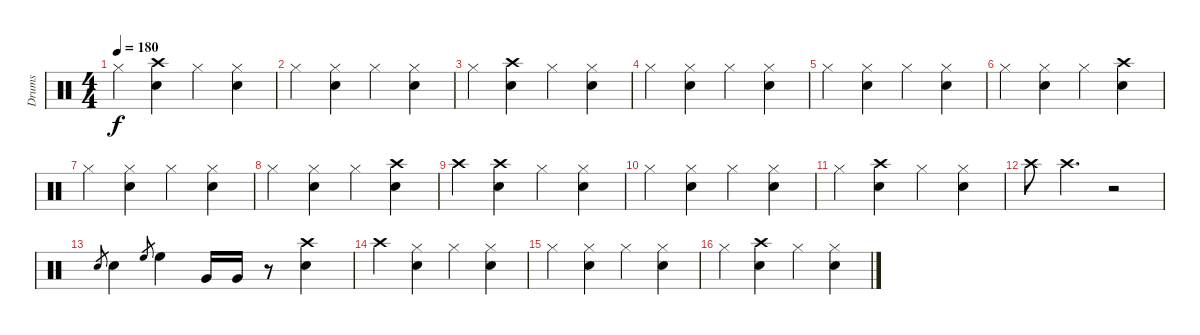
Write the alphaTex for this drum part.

\track ("Drums" "Drums") {instrument percussion}
\staff {score}
\articulation defaults
\ts (4 4)
\tempo 180
\clef neutral
\ks c "Hi-Hat (closed)".4{dy f}
("Crash high (hit)" "Snare (hit) 2").4 "Hi-Hat (closed)".4 ("Hi-Hat (closed)" "Snare (hit) 2").4 |
"Hi-Hat (closed)".4 ("Hi-Hat (closed)" "Snare (hit) 2").4 "Hi-Hat (closed)".4 ("Hi-Hat (closed)" "Snare (hit) 2").4 |
"Hi-Hat (closed)".4 ("Crash high (hit)" "Snare (hit) 2").4 "Hi-Hat (closed)".4 ("Hi-Hat (closed)" "Snare (hit) 2").4 |
"Hi-Hat (closed)".4 ("Hi-Hat (closed)" "Snare (hit) 2").4 "Hi-Hat (closed)".4 ("Hi-Hat (closed)" "Snare (hit) 2").4 |
"Hi-Hat (closed)".4 ("Hi-Hat (closed)" "Snare (hit) 2").4 "Hi-Hat (closed)".4 ("Hi-Hat (closed)" "Snare (hit) 2").4 |
"Hi-Hat (closed)".4 ("Hi-Hat (closed)" "Snare (hit) 2").4 "Hi-Hat (closed)".4 ("Crash high (hit)" "Snare (hit) 2").4 |
"Hi-Hat (closed)".4 ("Hi-Hat (closed)" "Snare (hit) 2").4 "Hi-Hat (closed)".4 ("Hi-Hat (closed)" "Snare (hit) 2").4 |
"Hi-Hat (closed)".4 ("Hi-Hat (closed)" "Snare (hit) 2").4 "Hi-Hat (closed)".4 ("Crash high (hit)" "Snare (hit) 2").4 |
"Crash high (hit)".4 ("Crash high (hit)" "Snare (hit) 2").4 "Hi-Hat (closed)".4 ("Hi-Hat (closed)" "Snare (hit) 2").4 |
"Hi-Hat (closed)".4 ("Hi-Hat (closed)" "Snare (hit) 2").4 "Hi-Hat (closed)".4 ("Hi-Hat (closed)" "Snare (hit) 2").4 |
"Hi-Hat (closed)".4 ("Crash high (hit)" "Snare (hit) 2").4 "Hi-Hat (closed)".4 ("Hi-Hat (closed)" "Snare (hit) 2").4 |
"Crash high (hit)".8 "Crash high (hit)".4{d} r.2 |
"Snare (hit) 2".8{gr} "Snare (hit) 2".4 "High Floor Tom (hit)".8{gr} "High Floor Tom (hit)".4 "Very Low Tom (hit)".16 "Very Low Tom (hit)".16 r.8 ("Crash high (hit)" "Snare (hit) 2").4 |
"Crash high (hit)".4 ("Hi-Hat (closed)" "Snare (hit) 2").4 "Hi-Hat (closed)".4 ("Hi-Hat (closed)" "Snare (hit) 2").4 |
"Hi-Hat (closed)".4 ("Hi-Hat (closed)" "Snare (hit) 2").4 "Hi-Hat (closed)".4 ("Hi-Hat (closed)" "Snare (hit) 2").4 |
"Hi-Hat (closed)".4 ("Crash high (hit)" "Snare (hit) 2").4 "Hi-Hat (closed)".4 ("Hi-Hat (closed)" "Snare (hit) 2").4
